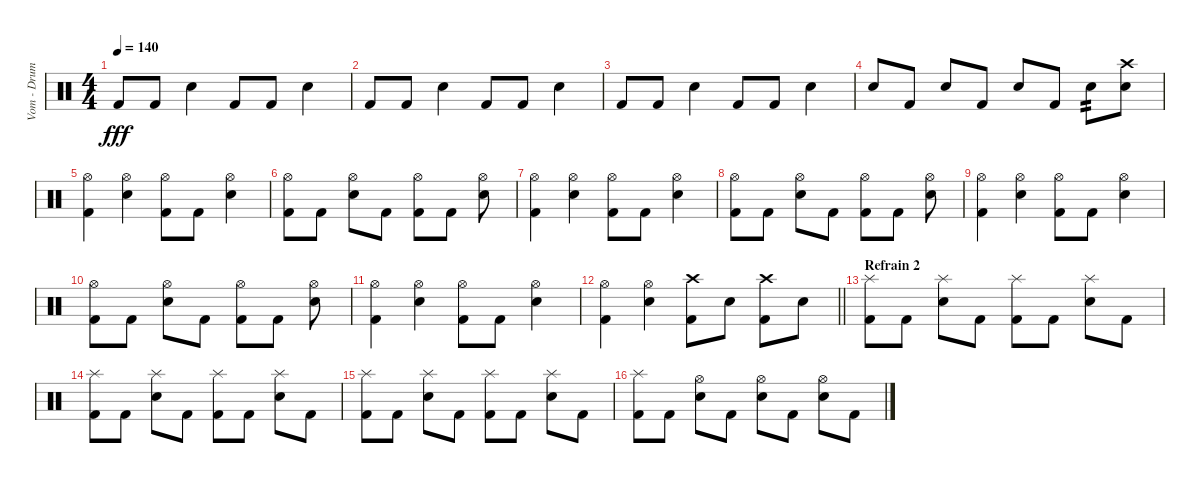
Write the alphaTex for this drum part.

\track ("Vom - Drums" "Vom - Drum") {instrument percussion}
\staff {score}
\articulation defaults
\ts (4 4)
\tempo 140
\clef neutral
\ks c "Kick (hit) 2".8{dy fff} "Kick (hit) 2".8 "Snare (hit) 2".4 "Kick (hit) 2".8 "Kick (hit) 2".8 "Snare (hit) 2".4
|
"Kick (hit) 2".8 "Kick (hit) 2".8 "Snare (hit) 2".4 "Kick (hit) 2".8 "Kick (hit) 2".8 "Snare (hit) 2".4 |
"Kick (hit) 2".8 "Kick (hit) 2".8 "Snare (hit) 2".4 "Kick (hit) 2".8 "Kick (hit) 2".8 "Snare (hit) 2".4 |
"Snare (hit) 2".8 "Kick (hit) 2".8 "Snare (hit) 2".8 "Kick (hit) 2".8 "Snare (hit) 2".8 "Kick (hit) 2".8 "Snare (hit) 2".8{tp 2} ("Crash high (hit)" "Snare (hit)").8 |
("Hi-Hat (open)" "Kick (hit) 2").4 ("Hi-Hat (open)" "Snare (hit) 2").4 ("Hi-Hat (open)" "Kick (hit) 2").8 "Kick (hit) 2".8 ("Hi-Hat (open)" "Snare (hit) 2").4 |
("Hi-Hat (open)" "Kick (hit) 2").8 "Kick (hit) 2".8 ("Hi-Hat (open)" "Snare (hit) 2").8 "Kick (hit) 2".8 ("Hi-Hat (open)" "Kick (hit) 2").8 "Kick (hit) 2".8 ("Hi-Hat (open)" "Snare (hit) 2").8 |
("Hi-Hat (open)" "Kick (hit) 2").4 ("Hi-Hat (open)" "Snare (hit) 2").4 ("Hi-Hat (open)" "Kick (hit) 2").8 "Kick (hit) 2".8 ("Hi-Hat (open)" "Snare (hit) 2").4 |
("Hi-Hat (open)" "Kick (hit) 2").8 "Kick (hit) 2".8 ("Hi-Hat (open)" "Snare (hit) 2").8 "Kick (hit) 2".8 ("Hi-Hat (open)" "Kick (hit) 2").8 "Kick (hit) 2".8 ("Hi-Hat (open)" "Snare (hit) 2").8 |
("Hi-Hat (open)" "Kick (hit) 2").4 ("Hi-Hat (open)" "Snare (hit) 2").4 ("Hi-Hat (open)" "Kick (hit) 2").8 "Kick (hit) 2".8 ("Hi-Hat (open)" "Snare (hit) 2").4 |
("Hi-Hat (open)" "Kick (hit) 2").8 "Kick (hit) 2".8 ("Hi-Hat (open)" "Snare (hit) 2").8 "Kick (hit) 2".8 ("Hi-Hat (open)" "Kick (hit) 2").8 "Kick (hit) 2".8 ("Hi-Hat (open)" "Snare (hit) 2").8 |
("Hi-Hat (open)" "Kick (hit) 2").4 ("Hi-Hat (open)" "Snare (hit) 2").4 ("Hi-Hat (open)" "Kick (hit) 2").8 "Kick (hit) 2".8 ("Hi-Hat (open)" "Snare (hit) 2").4 |
\barLineRight lightlight
("Hi-Hat (open)" "Kick (hit) 2").4 ("Hi-Hat (open)" "Snare (hit) 2").4 ("Crash high (hit)" "Kick (hit) 2").8 "Snare (hit) 2".8 ("Crash high (hit)" "Kick (hit) 2").8 "Snare (hit) 2".8 |
\section ("" "Refrain 2")
("Splash (hit)" "Kick (hit) 2").8 "Kick (hit) 2".8 ("Splash (hit)" "Snare (hit) 2").8 "Kick (hit) 2".8 ("Splash (hit)" "Kick (hit) 2").8 "Kick (hit) 2".8 ("Splash (hit)" "Snare (hit) 2").8 "Kick (hit) 2".8 |
("Splash (hit)" "Kick (hit) 2").8 "Kick (hit) 2".8 ("Splash (hit)" "Snare (hit) 2").8 "Kick (hit) 2".8 ("Splash (hit)" "Kick (hit) 2").8 "Kick (hit) 2".8 ("Splash (hit)" "Snare (hit) 2").8 "Kick (hit) 2".8 |
("Splash (hit)" "Kick (hit) 2").8 "Kick (hit) 2".8 ("Splash (hit)" "Snare (hit) 2").8 "Kick (hit) 2".8 ("Splash (hit)" "Kick (hit) 2").8 "Kick (hit) 2".8 ("Splash (hit)" "Snare (hit) 2").8 "Kick (hit) 2".8 |
("Splash (hit)" "Kick (hit) 2").8 "Kick (hit) 2".8 ("Hi-Hat (open)" "Snare (hit) 2").8 "Kick (hit) 2".8 ("Hi-Hat (open)" "Snare (hit) 2").8 "Kick (hit) 2".8 ("Hi-Hat (open)" "Snare (hit) 2").8 "Kick (hit) 2".8
